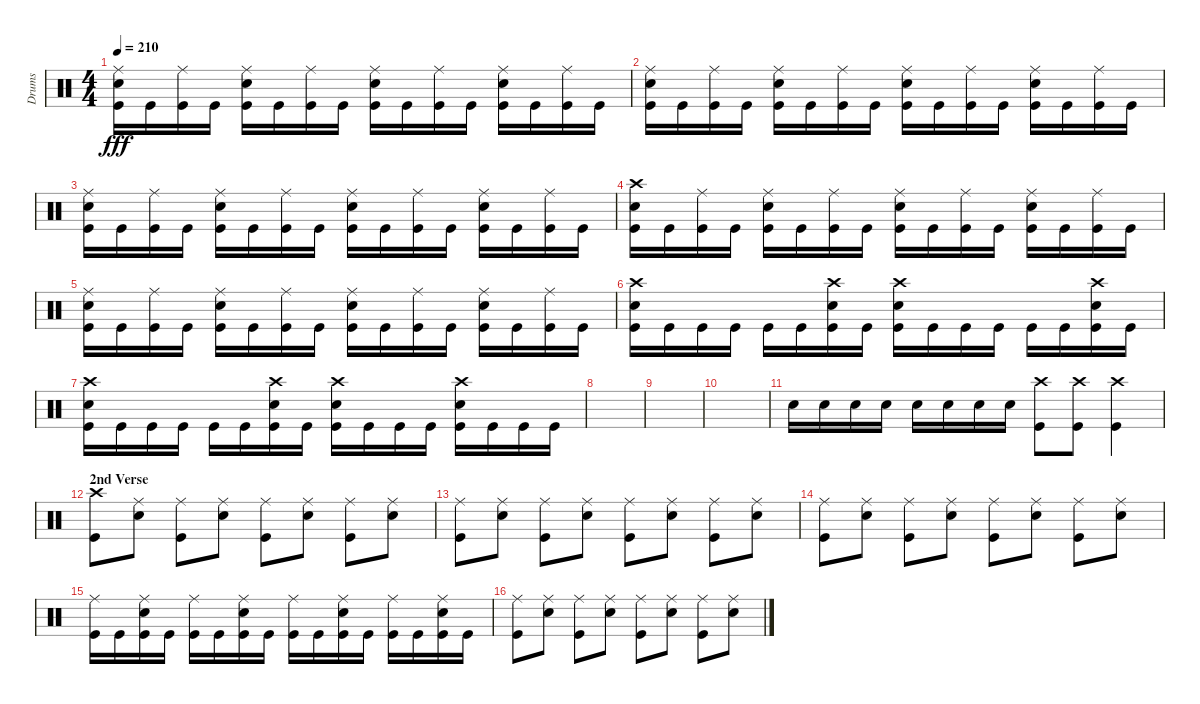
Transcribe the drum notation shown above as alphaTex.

\track ("Drums" "Drums") {instrument percussion}
\staff {score}
\articulation defaults
\ts (4 4)
\tempo 210
\clef neutral
\ks c
("Ride (middle)" "Snare (hit) 2" "Kick (hit)").16{dy fff} "Kick (hit)".16 ("Ride (middle)" "Kick (hit)").16 "Kick (hit)".16 ("Ride (middle)" "Snare (hit) 2" "Kick (hit)").16 "Kick (hit)".16 ("Ride (middle)" "Kick (hit)").16 "Kick (hit)".16 ("Ride (middle)" "Snare (hit) 2" "Kick (hit)").16 "Kick (hit)".16 ("Ride (middle)" "Kick (hit)").16 "Kick (hit)".16 ("Ride (middle)" "Snare (hit) 2" "Kick (hit)").16 "Kick (hit)".16 ("Ride (middle)" "Kick (hit)").16 "Kick (hit)".16 |
("Ride (middle)" "Snare (hit) 2" "Kick (hit)").16 "Kick (hit)".16 ("Ride (middle)" "Kick (hit)").16 "Kick (hit)".16 ("Ride (middle)" "Snare (hit) 2" "Kick (hit)").16 "Kick (hit)".16 ("Ride (middle)" "Kick (hit)").16 "Kick (hit)".16 ("Ride (middle)" "Snare (hit) 2" "Kick (hit)").16 "Kick (hit)".16 ("Ride (middle)" "Kick (hit)").16 "Kick (hit)".16 ("Ride (middle)" "Snare (hit) 2" "Kick (hit)").16 "Kick (hit)".16 ("Ride (middle)" "Kick (hit)").16 "Kick (hit)".16 |
("Ride (middle)" "Snare (hit) 2" "Kick (hit)").16 "Kick (hit)".16 ("Ride (middle)" "Kick (hit)").16 "Kick (hit)".16 ("Ride (middle)" "Snare (hit) 2" "Kick (hit)").16 "Kick (hit)".16 ("Ride (middle)" "Kick (hit)").16 "Kick (hit)".16 ("Ride (middle)" "Snare (hit) 2" "Kick (hit)").16 "Kick (hit)".16 ("Ride (middle)" "Kick (hit)").16 "Kick (hit)".16 ("Ride (middle)" "Snare (hit) 2" "Kick (hit)").16 "Kick (hit)".16 ("Ride (middle)" "Kick (hit)").16 "Kick (hit)".16 |
("Snare (hit) 2" "Crash high (hit)" "Kick (hit)").16 "Kick (hit)".16 ("Ride (middle)" "Kick (hit)").16 "Kick (hit)".16 ("Ride (middle)" "Snare (hit) 2" "Kick (hit)").16 "Kick (hit)".16 ("Ride (middle)" "Kick (hit)").16 "Kick (hit)".16 ("Ride (middle)" "Snare (hit) 2" "Kick (hit)").16 "Kick (hit)".16 ("Ride (middle)" "Kick (hit)").16 "Kick (hit)".16 ("Ride (middle)" "Snare (hit) 2" "Kick (hit)").16 "Kick (hit)".16 ("Ride (middle)" "Kick (hit)").16 "Kick (hit)".16 |
("Ride (middle)" "Snare (hit) 2" "Kick (hit)").16 "Kick (hit)".16 ("Ride (middle)" "Kick (hit)").16 "Kick (hit)".16 ("Ride (middle)" "Snare (hit) 2" "Kick (hit)").16 "Kick (hit)".16 ("Ride (middle)" "Kick (hit)").16 "Kick (hit)".16 ("Ride (middle)" "Snare (hit) 2" "Kick (hit)").16 "Kick (hit)".16 ("Ride (middle)" "Kick (hit)").16 "Kick (hit)".16 ("Ride (middle)" "Snare (hit) 2" "Kick (hit)").16 "Kick (hit)".16 ("Ride (middle)" "Kick (hit)").16 "Kick (hit)".16 |
("Snare (hit) 2" "Crash high (hit)" "Kick (hit)").16 "Kick (hit)".16 "Kick (hit)".16 "Kick (hit)".16 "Kick (hit)".16 "Kick (hit)".16 ("Snare (hit) 2" "Crash high (hit)" "Kick (hit)").16 "Kick (hit)".16 ("Snare (hit) 2" "Crash high (hit)" "Kick (hit)").16 "Kick (hit)".16 "Kick (hit)".16 "Kick (hit)".16 "Kick (hit)".16 "Kick (hit)".16 ("Snare (hit) 2" "Crash high (hit)" "Kick (hit)").16 "Kick (hit)".16 |
("Snare (hit) 2" "Crash high (hit)" "Kick (hit)").16 "Kick (hit)".16 "Kick (hit)".16 "Kick (hit)".16 "Kick (hit)".16 "Kick (hit)".16 ("Snare (hit) 2" "Crash high (hit)" "Kick (hit)").16 "Kick (hit)".16 ("Snare (hit) 2" "Crash high (hit)" "Kick (hit)").16 "Kick (hit)".16 "Kick (hit)".16 "Kick (hit)".16 ("Snare (hit) 2" "Crash high (hit)" "Kick (hit)").16 "Kick (hit)".16 "Kick (hit)".16 "Kick (hit)".16 |
|
|
|
"Snare (hit) 2".16 "Snare (hit) 2".16 "Snare (hit) 2".16 "Snare (hit) 2".16 "Snare (hit) 2".16 "Snare (hit) 2".16 "Snare (hit) 2".16 "Snare (hit) 2".16 ("Crash high (hit)" "Kick (hit)").8 ("Crash high (hit)" "Kick (hit)").8 ("Crash high (hit)" "Kick (hit)").4 |
\section ("" "2nd Verse")
("Crash high (hit)" "Kick (hit)").8 ("Ride (middle)" "Snare (hit) 2").8 ("Ride (middle)" "Kick (hit)").8 ("Ride (middle)" "Snare (hit) 2").8 ("Ride (middle)" "Kick (hit)").8 ("Ride (middle)" "Snare (hit) 2").8 ("Ride (middle)" "Kick (hit)").8 ("Ride (middle)" "Snare (hit) 2").8 |
("Ride (middle)" "Kick (hit)").8 ("Ride (middle)" "Snare (hit) 2").8 ("Ride (middle)" "Kick (hit)").8 ("Ride (middle)" "Snare (hit) 2").8 ("Ride (middle)" "Kick (hit)").8 ("Ride (middle)" "Snare (hit) 2").8 ("Ride (middle)" "Kick (hit)").8 ("Ride (middle)" "Snare (hit) 2").8 |
("Ride (middle)" "Kick (hit)").8 ("Ride (middle)" "Snare (hit) 2").8 ("Ride (middle)" "Kick (hit)").8 ("Ride (middle)" "Snare (hit) 2").8 ("Ride (middle)" "Kick (hit)").8 ("Ride (middle)" "Snare (hit) 2").8 ("Ride (middle)" "Kick (hit)").8 ("Ride (middle)" "Snare (hit) 2").8 |
("Ride (middle)" "Kick (hit)").16 "Kick (hit)".16 ("Ride (middle)" "Snare (hit) 2" "Kick (hit)").16 "Kick (hit)".16 ("Ride (middle)" "Kick (hit)").16 "Kick (hit)".16 ("Ride (middle)" "Snare (hit) 2" "Kick (hit)").16 "Kick (hit)".16 ("Ride (middle)" "Kick (hit)").16 "Kick (hit)".16 ("Ride (middle)" "Snare (hit) 2" "Kick (hit)").16 "Kick (hit)".16 ("Ride (middle)" "Kick (hit)").16 "Kick (hit)".16 ("Ride (middle)" "Snare (hit) 2" "Kick (hit)").16 "Kick (hit)".16 |
("Ride (middle)" "Kick (hit)").8 ("Ride (middle)" "Snare (hit) 2").8 ("Ride (middle)" "Kick (hit)").8 ("Ride (middle)" "Snare (hit) 2").8 ("Ride (middle)" "Kick (hit)").8 ("Ride (middle)" "Snare (hit) 2").8 ("Ride (middle)" "Kick (hit)").8 ("Ride (middle)" "Snare (hit) 2").8
